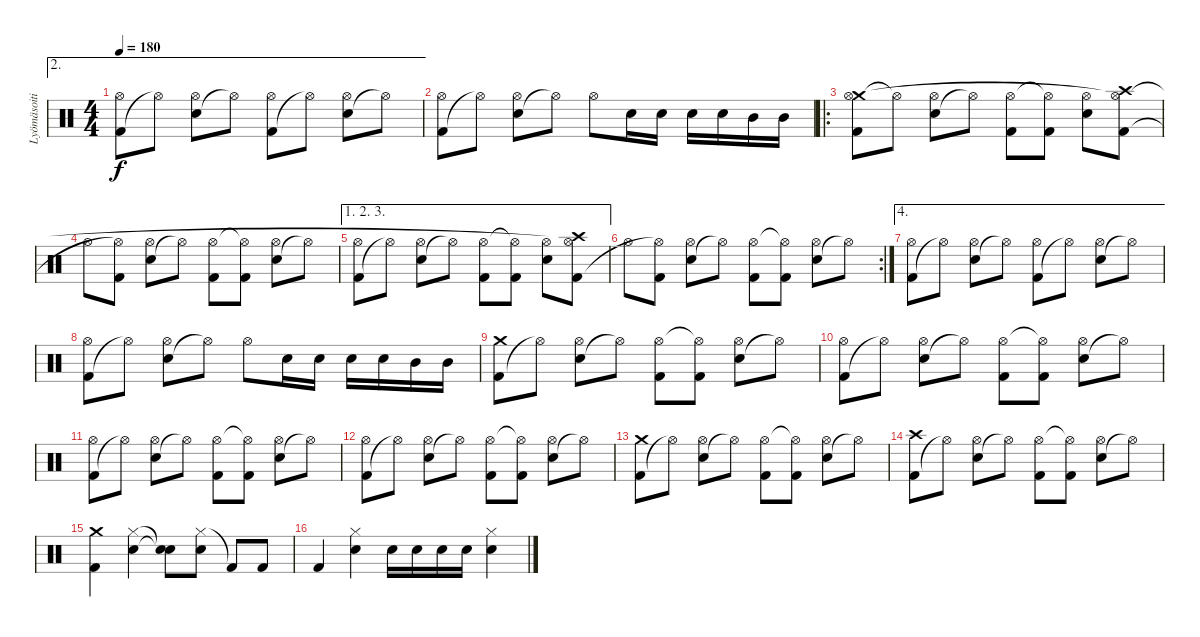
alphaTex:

\track ("Lyömäsoitin" "Lyömäsoiti") {instrument percussion}
\staff {score}
\articulation defaults
\ae 2
\ts (4 4)
\tempo 180
\clef neutral
\ks c
("Kick (hit) 2" "Hi-Hat (open)").8{dy f} "Hi-Hat (open)"{t}.8 ("Electric Snare (hit)" "Hi-Hat (open)").8 "Hi-Hat (open)"{t}.8 ("Kick (hit) 2" "Hi-Hat (open)").8 "Hi-Hat (open)"{t}.8 ("Electric Snare (hit)" "Hi-Hat (open)").8 "Hi-Hat (open)"{t}.8 |
("Kick (hit) 2" "Hi-Hat (open)").8 "Hi-Hat (open)"{t}.8 ("Electric Snare (hit)" "Hi-Hat (open)").8 "Hi-Hat (open)"{t}.8 "Hi-Hat (open)".8 "Electric Snare (hit)".16 "Electric Snare (hit)".16 "Electric Snare (hit)".16 "Electric Snare (hit)".16 "Mid Tom (hit)".16 "Mid Tom (hit)".16 |
\ro
("Crash medium (hit)" "Kick (hit) 2" "Hi-Hat (open)").8 "Hi-Hat (open)"{t}.8 ("Electric Snare (hit)" "Hi-Hat (open)").8 "Hi-Hat (open)"{t}.8 ("Kick (hit) 2" "Hi-Hat (open)").8 ("Kick (hit) 2" "Hi-Hat (open)"{t}).8 ("Electric Snare (hit)" "Hi-Hat (open)").8 ("Crash high (hit)" "Kick (hit) 2" "Hi-Hat (open)"{t}).8 |
"Hi-Hat (open)".8 ("Kick (hit) 2" "Hi-Hat (open)"{t}).8 ("Electric Snare (hit)" "Hi-Hat (open)").8 "Hi-Hat (open)"{t}.8 ("Kick (hit) 2" "Hi-Hat (open)").8 ("Kick (hit) 2" "Hi-Hat (open)"{t}).8 ("Electric Snare (hit)" "Hi-Hat (open)").8 "Hi-Hat (open)"{t}.8 |
\ae (1 2 3)
("Kick (hit) 2" "Hi-Hat (open)").8 "Hi-Hat (open)"{t}.8 ("Electric Snare (hit)" "Hi-Hat (open)").8 "Hi-Hat (open)"{t}.8 ("Kick (hit) 2" "Hi-Hat (open)").8 ("Kick (hit) 2" "Hi-Hat (open)"{t}).8 ("Electric Snare (hit)" "Hi-Hat (open)").8 ("Crash high (hit)" "Kick (hit) 2" "Hi-Hat (open)"{t}).8 |
\rc 2 "Hi-Hat (open)".8
("Kick (hit) 2" "Hi-Hat (open)"{t}).8 ("Electric Snare (hit)" "Hi-Hat (open)").8 "Hi-Hat (open)"{t}.8 ("Kick (hit) 2" "Hi-Hat (open)").8 ("Kick (hit) 2" "Hi-Hat (open)"{t}).8 ("Electric Snare (hit)" "Hi-Hat (open)").8 "Hi-Hat (open)"{t}.8 |
\ae 4
("Kick (hit) 2" "Hi-Hat (open)").8 "Hi-Hat (open)"{t}.8 ("Electric Snare (hit)" "Hi-Hat (open)").8 "Hi-Hat (open)"{t}.8 ("Kick (hit) 2" "Hi-Hat (open)").8 "Hi-Hat (open)"{t}.8 ("Electric Snare (hit)" "Hi-Hat (open)").8 "Hi-Hat (open)"{t}.8 |
("Kick (hit) 2" "Hi-Hat (open)").8 "Hi-Hat (open)"{t}.8 ("Electric Snare (hit)" "Hi-Hat (open)").8 "Hi-Hat (open)"{t}.8 "Hi-Hat (open)".8 "Electric Snare (hit)".16 "Electric Snare (hit)".16 "Electric Snare (hit)".16 "Electric Snare (hit)".16 "Mid Tom (hit)".16 "Mid Tom (hit)".16 |
("Kick (hit) 2" "Crash medium (hit)").8 "Hi-Hat (open)"{t}.8 ("Electric Snare (hit)" "Hi-Hat (open)").8 "Hi-Hat (open)"{t}.8 ("Kick (hit) 2" "Hi-Hat (open)").8 ("Kick (hit) 2" "Hi-Hat (open)"{t}).8 ("Electric Snare (hit)" "Hi-Hat (open)").8 "Hi-Hat (open)"{t}.8 |
("Kick (hit) 2" "Hi-Hat (open)").8 "Hi-Hat (open)"{t}.8 ("Electric Snare (hit)" "Hi-Hat (open)").8 "Hi-Hat (open)"{t}.8 ("Kick (hit) 2" "Hi-Hat (open)").8 ("Kick (hit) 2" "Hi-Hat (open)"{t}).8 ("Electric Snare (hit)" "Hi-Hat (open)").8 "Hi-Hat (open)"{t}.8 |
("Kick (hit) 2" "Hi-Hat (open)").8 "Hi-Hat (open)"{t}.8 ("Electric Snare (hit)" "Hi-Hat (open)").8 "Hi-Hat (open)"{t}.8 ("Kick (hit) 2" "Hi-Hat (open)").8 ("Kick (hit) 2" "Hi-Hat (open)"{t}).8 ("Electric Snare (hit)" "Hi-Hat (open)").8 "Hi-Hat (open)"{t}.8 |
("Kick (hit) 2" "Hi-Hat (open)").8 "Hi-Hat (open)"{t}.8 ("Electric Snare (hit)" "Hi-Hat (open)").8 "Hi-Hat (open)"{t}.8 ("Kick (hit) 2" "Hi-Hat (open)").8 ("Kick (hit) 2" "Hi-Hat (open)"{t}).8 ("Electric Snare (hit)" "Hi-Hat (open)").8 "Hi-Hat (open)"{t}.8 |
("Kick (hit) 2" "Crash medium (hit)").8 "Hi-Hat (open)"{t}.8 ("Electric Snare (hit)" "Hi-Hat (open)").8 "Hi-Hat (open)"{t}.8 ("Kick (hit) 2" "Hi-Hat (open)").8 ("Kick (hit) 2" "Hi-Hat (open)"{t}).8 ("Electric Snare (hit)" "Hi-Hat (open)").8 "Hi-Hat (open)"{t}.8 |
("Kick (hit) 2" "Crash high (hit)").8 "Hi-Hat (open)"{t}.8 ("Electric Snare (hit)" "Hi-Hat (open)").8 "Hi-Hat (open)"{t}.8 ("Kick (hit) 2" "Hi-Hat (open)").8 ("Kick (hit) 2" "Hi-Hat (open)"{t}).8 ("Electric Snare (hit)" "Hi-Hat (open)").8 "Hi-Hat (open)"{t}.8 |
("Kick (hit) 2" "Crash medium (hit)").4 ("Hi-Hat (closed)" "Electric Snare (hit)").4 ("Snare (hit)"{t} "Snare (hit)"{t}).8 ("Hi-Hat (closed)" "Electric Snare (hit)").8 "Kick (hit) 2"{t}.8 "Kick (hit) 2".8 |
"Kick (hit) 2".4 ("Hi-Hat (closed)" "Electric Snare (hit)").4 "Electric Snare (hit)".16 "Electric Snare (hit)".16 "Electric Snare (hit)".16 "Electric Snare (hit)".16 ("Hi-Hat (closed)" "Electric Snare (hit)").4
